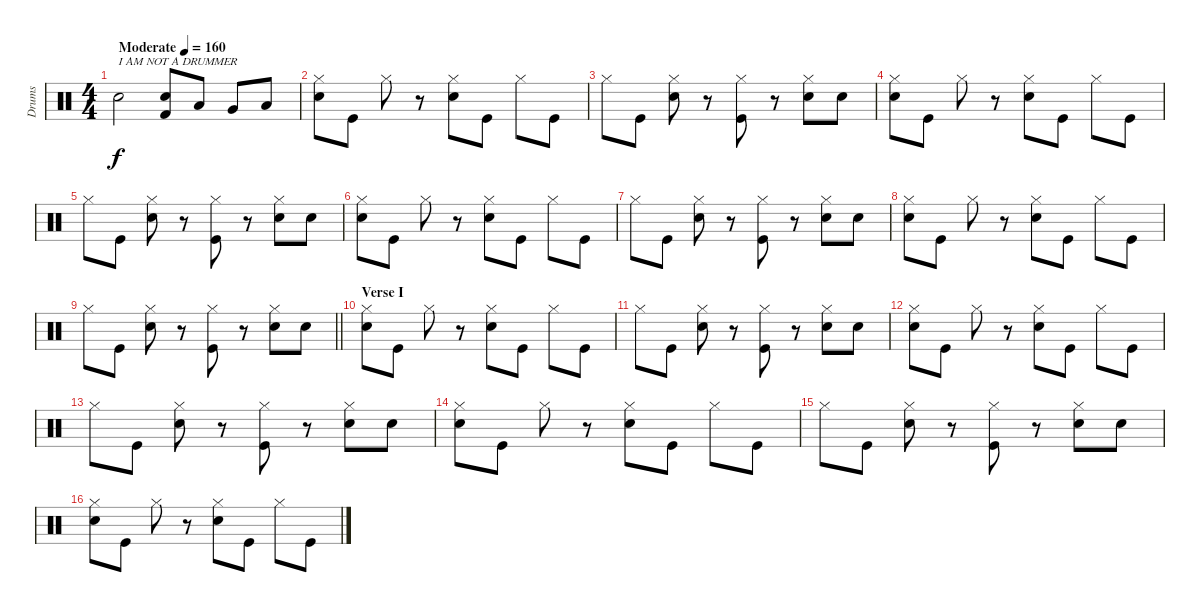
\track ("Drums" "Drums") {instrument percussion}
\staff {score}
\articulation defaults
\ts (4 4)
\tempo (160 "Moderate")
\clef neutral
\ks c "Snare (hit)".2{txt "I AM NOT A DRUMMER" dy f}
("Electric Snare (hit)" "Kick (hit) 2").8 "Low Tom (hit)".8 "Very Low Tom (hit)".8 "Low Floor Tom (hit)".8 |
("Hi-Hat (closed)" "Electric Snare (hit)").8 "Kick (hit)".8 "Hi-Hat (closed)".8 r.8 ("Hi-Hat (closed)" "Electric Snare (hit)").8 "Kick (hit)".8 "Hi-Hat (closed)".8 "Kick (hit)".8 |
"Hi-Hat (closed)".8 "Kick (hit)".8 ("Hi-Hat (closed)" "Electric Snare (hit)").8 r.8 ("Hi-Hat (closed)" "Kick (hit)").8 r.8 ("Hi-Hat (closed)" "Electric Snare (hit)").8 "Snare (hit)".8 |
("Hi-Hat (closed)" "Electric Snare (hit)").8 "Kick (hit)".8 "Hi-Hat (closed)".8 r.8 ("Hi-Hat (closed)" "Electric Snare (hit)").8 "Kick (hit)".8 "Hi-Hat (closed)".8 "Kick (hit)".8 |
"Hi-Hat (closed)".8 "Kick (hit)".8 ("Hi-Hat (closed)" "Electric Snare (hit)").8 r.8 ("Hi-Hat (closed)" "Kick (hit)").8 r.8 ("Hi-Hat (closed)" "Electric Snare (hit)").8 "Snare (hit)".8 |
("Hi-Hat (closed)" "Electric Snare (hit)").8 "Kick (hit)".8 "Hi-Hat (closed)".8 r.8 ("Hi-Hat (closed)" "Electric Snare (hit)").8 "Kick (hit)".8 "Hi-Hat (closed)".8 "Kick (hit)".8 |
"Hi-Hat (closed)".8 "Kick (hit)".8 ("Hi-Hat (closed)" "Electric Snare (hit)").8 r.8 ("Hi-Hat (closed)" "Kick (hit)").8 r.8 ("Hi-Hat (closed)" "Electric Snare (hit)").8 "Snare (hit)".8 |
("Hi-Hat (closed)" "Electric Snare (hit)").8 "Kick (hit)".8 "Hi-Hat (closed)".8 r.8 ("Hi-Hat (closed)" "Electric Snare (hit)").8 "Kick (hit)".8 "Hi-Hat (closed)".8 "Kick (hit)".8 |
\barLineRight lightlight "Hi-Hat (closed)".8 "Kick (hit)".8
("Hi-Hat (closed)" "Electric Snare (hit)").8 r.8 ("Hi-Hat (closed)" "Kick (hit)").8 r.8 ("Hi-Hat (closed)" "Electric Snare (hit)").8 "Snare (hit)".8 |
\section ("" "Verse I")
("Hi-Hat (closed)" "Electric Snare (hit)").8 "Kick (hit)".8 "Hi-Hat (closed)".8 r.8 ("Hi-Hat (closed)" "Electric Snare (hit)").8 "Kick (hit)".8 "Hi-Hat (closed)".8 "Kick (hit)".8 |
"Hi-Hat (closed)".8 "Kick (hit)".8 ("Hi-Hat (closed)" "Electric Snare (hit)").8 r.8 ("Hi-Hat (closed)" "Kick (hit)").8 r.8 ("Hi-Hat (closed)" "Electric Snare (hit)").8 "Snare (hit)".8 |
("Hi-Hat (closed)" "Electric Snare (hit)").8 "Kick (hit)".8 "Hi-Hat (closed)".8 r.8 ("Hi-Hat (closed)" "Electric Snare (hit)").8 "Kick (hit)".8 "Hi-Hat (closed)".8 "Kick (hit)".8 |
"Hi-Hat (closed)".8 "Kick (hit)".8 ("Hi-Hat (closed)" "Electric Snare (hit)").8 r.8 ("Hi-Hat (closed)" "Kick (hit)").8 r.8 ("Hi-Hat (closed)" "Electric Snare (hit)").8 "Snare (hit)".8 |
("Hi-Hat (closed)" "Electric Snare (hit)").8 "Kick (hit)".8 "Hi-Hat (closed)".8 r.8 ("Hi-Hat (closed)" "Electric Snare (hit)").8 "Kick (hit)".8 "Hi-Hat (closed)".8 "Kick (hit)".8 |
"Hi-Hat (closed)".8 "Kick (hit)".8 ("Hi-Hat (closed)" "Electric Snare (hit)").8 r.8 ("Hi-Hat (closed)" "Kick (hit)").8 r.8 ("Hi-Hat (closed)" "Electric Snare (hit)").8 "Snare (hit)".8 |
("Hi-Hat (closed)" "Electric Snare (hit)").8 "Kick (hit)".8 "Hi-Hat (closed)".8 r.8 ("Hi-Hat (closed)" "Electric Snare (hit)").8 "Kick (hit)".8 "Hi-Hat (closed)".8 "Kick (hit)".8
